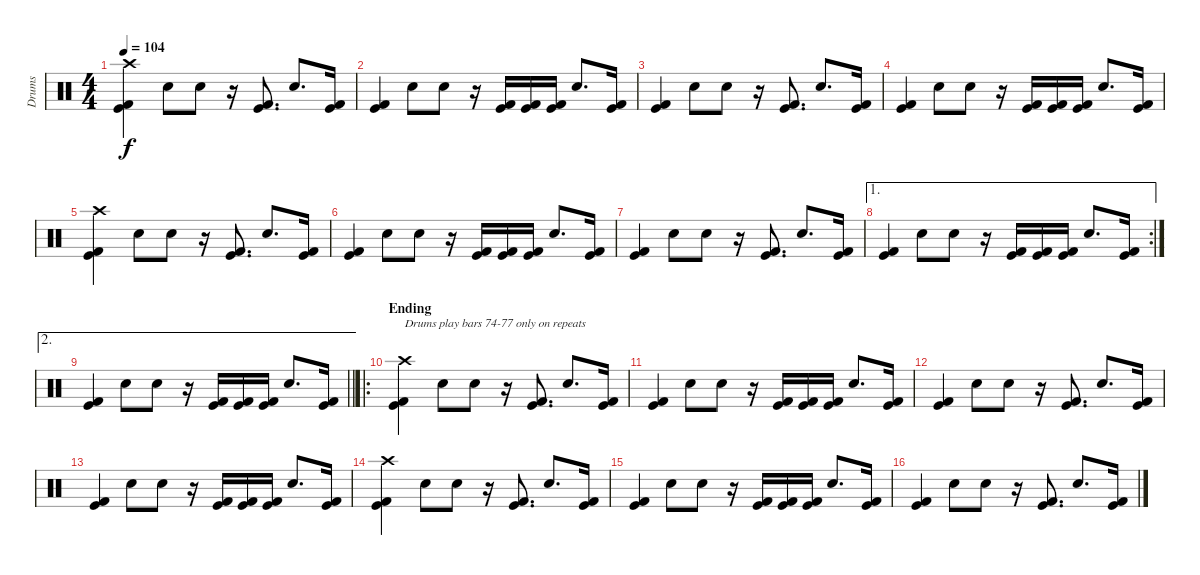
\track ("Drums" "Drums") {instrument percussion}
\staff {score}
\articulation defaults
\ts (4 4)
\tempo 104
\clef neutral
\ks c
("Crash high (hit)" "Kick (hit) 2" "Kick (hit)").4{dy f} "Snare (hit) 2".8 "Snare (hit) 2".8 r.16 ("Kick (hit) 2" "Kick (hit)").8{d} "Snare (hit) 2".8{d} ("Kick (hit) 2" "Kick (hit)").16 |
("Kick (hit) 2" "Kick (hit)").4 "Snare (hit) 2".8 "Snare (hit) 2".8 r.16 ("Kick (hit) 2" "Kick (hit)").16 ("Kick (hit) 2" "Kick (hit)").16 ("Kick (hit) 2" "Kick (hit)").16 "Snare (hit) 2".8{d} ("Kick (hit) 2" "Kick (hit)").16 |
("Kick (hit) 2" "Kick (hit)").4 "Snare (hit) 2".8 "Snare (hit) 2".8 r.16 ("Kick (hit) 2" "Kick (hit)").8{d} "Snare (hit) 2".8{d} ("Kick (hit) 2" "Kick (hit)").16 |
("Kick (hit) 2" "Kick (hit)").4 "Snare (hit) 2".8 "Snare (hit) 2".8 r.16 ("Kick (hit) 2" "Kick (hit)").16 ("Kick (hit) 2" "Kick (hit)").16 ("Kick (hit) 2" "Kick (hit)").16 "Snare (hit) 2".8{d} ("Kick (hit) 2" "Kick (hit)").16 |
("Crash high (hit)" "Kick (hit) 2" "Kick (hit)").4 "Snare (hit) 2".8 "Snare (hit) 2".8 r.16 ("Kick (hit) 2" "Kick (hit)").8{d} "Snare (hit) 2".8{d} ("Kick (hit) 2" "Kick (hit)").16 |
("Kick (hit) 2" "Kick (hit)").4 "Snare (hit) 2".8 "Snare (hit) 2".8 r.16 ("Kick (hit) 2" "Kick (hit)").16 ("Kick (hit) 2" "Kick (hit)").16 ("Kick (hit) 2" "Kick (hit)").16 "Snare (hit) 2".8{d} ("Kick (hit) 2" "Kick (hit)").16 |
("Kick (hit) 2" "Kick (hit)").4 "Snare (hit) 2".8 "Snare (hit) 2".8 r.16 ("Kick (hit) 2" "Kick (hit)").8{d} "Snare (hit) 2".8{d} ("Kick (hit) 2" "Kick (hit)").16 |
\ae 1
\rc 2
("Kick (hit) 2" "Kick (hit)").4 "Snare (hit) 2".8 "Snare (hit) 2".8 r.16 ("Kick (hit) 2" "Kick (hit)").16 ("Kick (hit) 2" "Kick (hit)").16 ("Kick (hit) 2" "Kick (hit)").16 "Snare (hit) 2".8{d} ("Kick (hit) 2" "Kick (hit)").16 |
\ae 2
\barLineRight lightlight
("Kick (hit) 2" "Kick (hit)").4 "Snare (hit) 2".8 "Snare (hit) 2".8 r.16 ("Kick (hit) 2" "Kick (hit)").16 ("Kick (hit) 2" "Kick (hit)").16 ("Kick (hit) 2" "Kick (hit)").16 "Snare (hit) 2".8{d} ("Kick (hit) 2" "Kick (hit)").16 |
\ro
\section ("" "Ending")
("Crash high (hit)" "Kick (hit) 2" "Kick (hit)").4{txt "Drums play bars 74-77 only on repeats"} "Snare (hit) 2".8 "Snare (hit) 2".8 r.16 ("Kick (hit) 2" "Kick (hit)").8{d} "Snare (hit) 2".8{d} ("Kick (hit) 2" "Kick (hit)").16 |
("Kick (hit) 2" "Kick (hit)").4 "Snare (hit) 2".8 "Snare (hit) 2".8 r.16 ("Kick (hit) 2" "Kick (hit)").16 ("Kick (hit) 2" "Kick (hit)").16 ("Kick (hit) 2" "Kick (hit)").16 "Snare (hit) 2".8{d} ("Kick (hit) 2" "Kick (hit)").16 |
("Kick (hit) 2" "Kick (hit)").4 "Snare (hit) 2".8 "Snare (hit) 2".8 r.16 ("Kick (hit) 2" "Kick (hit)").8{d} "Snare (hit) 2".8{d} ("Kick (hit) 2" "Kick (hit)").16 |
("Kick (hit) 2" "Kick (hit)").4 "Snare (hit) 2".8 "Snare (hit) 2".8 r.16 ("Kick (hit) 2" "Kick (hit)").16 ("Kick (hit) 2" "Kick (hit)").16 ("Kick (hit) 2" "Kick (hit)").16 "Snare (hit) 2".8{d} ("Kick (hit) 2" "Kick (hit)").16 |
("Crash high (hit)" "Kick (hit) 2" "Kick (hit)").4 "Snare (hit) 2".8 "Snare (hit) 2".8 r.16 ("Kick (hit) 2" "Kick (hit)").8{d} "Snare (hit) 2".8{d} ("Kick (hit) 2" "Kick (hit)").16 |
("Kick (hit) 2" "Kick (hit)").4 "Snare (hit) 2".8 "Snare (hit) 2".8 r.16 ("Kick (hit) 2" "Kick (hit)").16 ("Kick (hit) 2" "Kick (hit)").16 ("Kick (hit) 2" "Kick (hit)").16 "Snare (hit) 2".8{d} ("Kick (hit) 2" "Kick (hit)").16 |
("Kick (hit) 2" "Kick (hit)").4 "Snare (hit) 2".8 "Snare (hit) 2".8 r.16 ("Kick (hit) 2" "Kick (hit)").8{d} "Snare (hit) 2".8{d} ("Kick (hit) 2" "Kick (hit)").16
